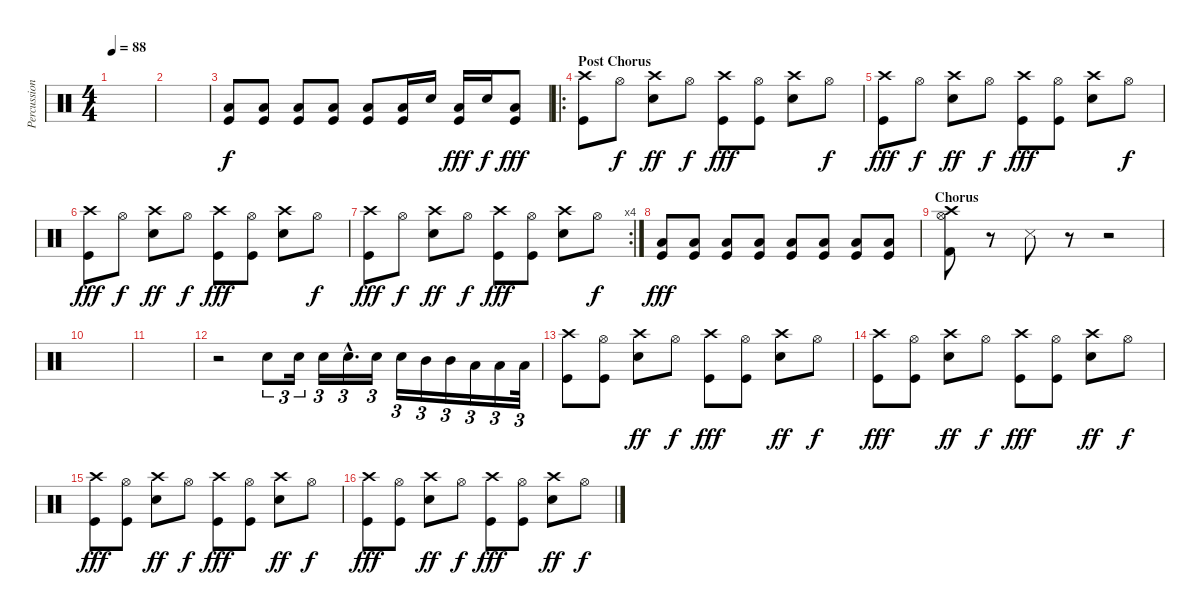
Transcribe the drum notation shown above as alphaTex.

\track ("Percussions" "Percussion") {instrument percussion}
\staff {score}
\articulation defaults
\ts (4 4)
\tempo 88
\clef neutral
\ks c
|
|
("Low Floor Tom (hit)" "Kick (hit)").8 ("Low Floor Tom (hit)" "Kick (hit)").8 ("Low Floor Tom (hit)" "Kick (hit)").8 ("Low Floor Tom (hit)" "Kick (hit)").8 ("Low Floor Tom (hit)" "Kick (hit)").8 ("Low Floor Tom (hit)" "Kick (hit)").16 "Snare (hit) 2".16{dy f} ("Low Floor Tom (hit)" "Kick (hit)").16{dy fff} "Snare (hit) 2".16{dy f} ("Low Floor Tom (hit)" "Kick (hit)").8{dy fff} |
\ro
\section ("" "Post Chorus")
("Crash high (hit)" "Kick (hit)").8 "Hi-Hat (open)".8{dy f} ("Crash high (hit)" "Snare (hit) 2").8{dy ff} "Hi-Hat (open)".8{dy f} ("Crash high (hit)" "Kick (hit)").8{dy fff} ("Hi-Hat (open)" "Kick (hit)").8 ("Crash high (hit)" "Snare (hit) 2").8 "Hi-Hat (open)".8{dy f} |
("Crash high (hit)" "Kick (hit)").8{dy fff} "Hi-Hat (open)".8{dy f} ("Crash high (hit)" "Snare (hit) 2").8{dy ff} "Hi-Hat (open)".8{dy f} ("Crash high (hit)" "Kick (hit)").8{dy fff} ("Hi-Hat (open)" "Kick (hit)").8 ("Crash high (hit)" "Snare (hit) 2").8 "Hi-Hat (open)".8{dy f} |
("Crash high (hit)" "Kick (hit)").8{dy fff} "Hi-Hat (open)".8{dy f} ("Crash high (hit)" "Snare (hit) 2").8{dy ff} "Hi-Hat (open)".8{dy f} ("Crash high (hit)" "Kick (hit)").8{dy fff} ("Hi-Hat (open)" "Kick (hit)").8 ("Crash high (hit)" "Snare (hit) 2").8 "Hi-Hat (open)".8{dy f} |
\rc 4
("Crash high (hit)" "Kick (hit)").8{dy fff} "Hi-Hat (open)".8{dy f} ("Crash high (hit)" "Snare (hit) 2").8{dy ff} "Hi-Hat (open)".8{dy f} ("Crash high (hit)" "Kick (hit)").8{dy fff} ("Hi-Hat (open)" "Kick (hit)").8 ("Crash high (hit)" "Snare (hit) 2").8 "Hi-Hat (open)".8{dy f} |
("Low Floor Tom (hit)" "Kick (hit)").8{dy fff} ("Low Floor Tom (hit)" "Kick (hit)").8 ("Low Floor Tom (hit)" "Kick (hit)").8 ("Low Floor Tom (hit)" "Kick (hit)").8 ("Low Floor Tom (hit)" "Kick (hit)").8 ("Low Floor Tom (hit)" "Kick (hit)").8 ("Low Floor Tom (hit)" "Kick (hit)").8 ("Low Floor Tom (hit)" "Kick (hit)").8 |
\section ("" "Chorus")
("Crash high (hit)" "Hi-Hat (open)" "Kick (hit) 2").8 r.8 "Snare (side stick) 3".8 r.8 r.2 |
|
|
r.2 "Snare (hit) 2".8{tu (3 2)} "Snare (hit) 2".16{tu (3 2)} "Snare (hit) 2".16{tu (3 2)} "Snare (hit) 2"{hac}.16{d tu (3 2)} "Snare (hit) 2".16{tu (3 2)} "Snare (hit) 2".16{tu (3 2)} "Mid Tom (hit)".16{tu (3 2)} "Mid Tom (hit)".16{tu (3 2)} "Low Tom (hit)".16{tu (3 2)} "Low Tom (hit)".16{tu (3 2)} "Low Tom (hit)".32{tu (3 2)} |
("Crash high (hit)" "Kick (hit)").8 ("Hi-Hat (open)" "Kick (hit)").8 ("Crash high (hit)" "Snare (hit) 2").8{dy ff} "Hi-Hat (open)".8{dy f} ("Crash high (hit)" "Kick (hit)").8{dy fff} ("Hi-Hat (open)" "Kick (hit)").8 ("Crash high (hit)" "Snare (hit) 2").8{dy ff} "Hi-Hat (open)".8{dy f} |
("Crash high (hit)" "Kick (hit)").8{dy fff} ("Hi-Hat (open)" "Kick (hit)").8 ("Crash high (hit)" "Snare (hit) 2").8{dy ff} "Hi-Hat (open)".8{dy f} ("Crash high (hit)" "Kick (hit)").8{dy fff} ("Hi-Hat (open)" "Kick (hit)").8 ("Crash high (hit)" "Snare (hit) 2").8{dy ff} "Hi-Hat (open)".8{dy f} |
("Crash high (hit)" "Kick (hit)").8{dy fff} ("Hi-Hat (open)" "Kick (hit)").8 ("Crash high (hit)" "Snare (hit) 2").8{dy ff} "Hi-Hat (open)".8{dy f} ("Crash high (hit)" "Kick (hit)").8{dy fff} ("Hi-Hat (open)" "Kick (hit)").8 ("Crash high (hit)" "Snare (hit) 2").8{dy ff} "Hi-Hat (open)".8{dy f} |
("Crash high (hit)" "Kick (hit)").8{dy fff} ("Hi-Hat (open)" "Kick (hit)").8 ("Crash high (hit)" "Snare (hit) 2").8{dy ff} "Hi-Hat (open)".8{dy f} ("Crash high (hit)" "Kick (hit)").8{dy fff} ("Hi-Hat (open)" "Kick (hit)").8 ("Crash high (hit)" "Snare (hit) 2").8{dy ff} "Hi-Hat (open)".8{dy f}
